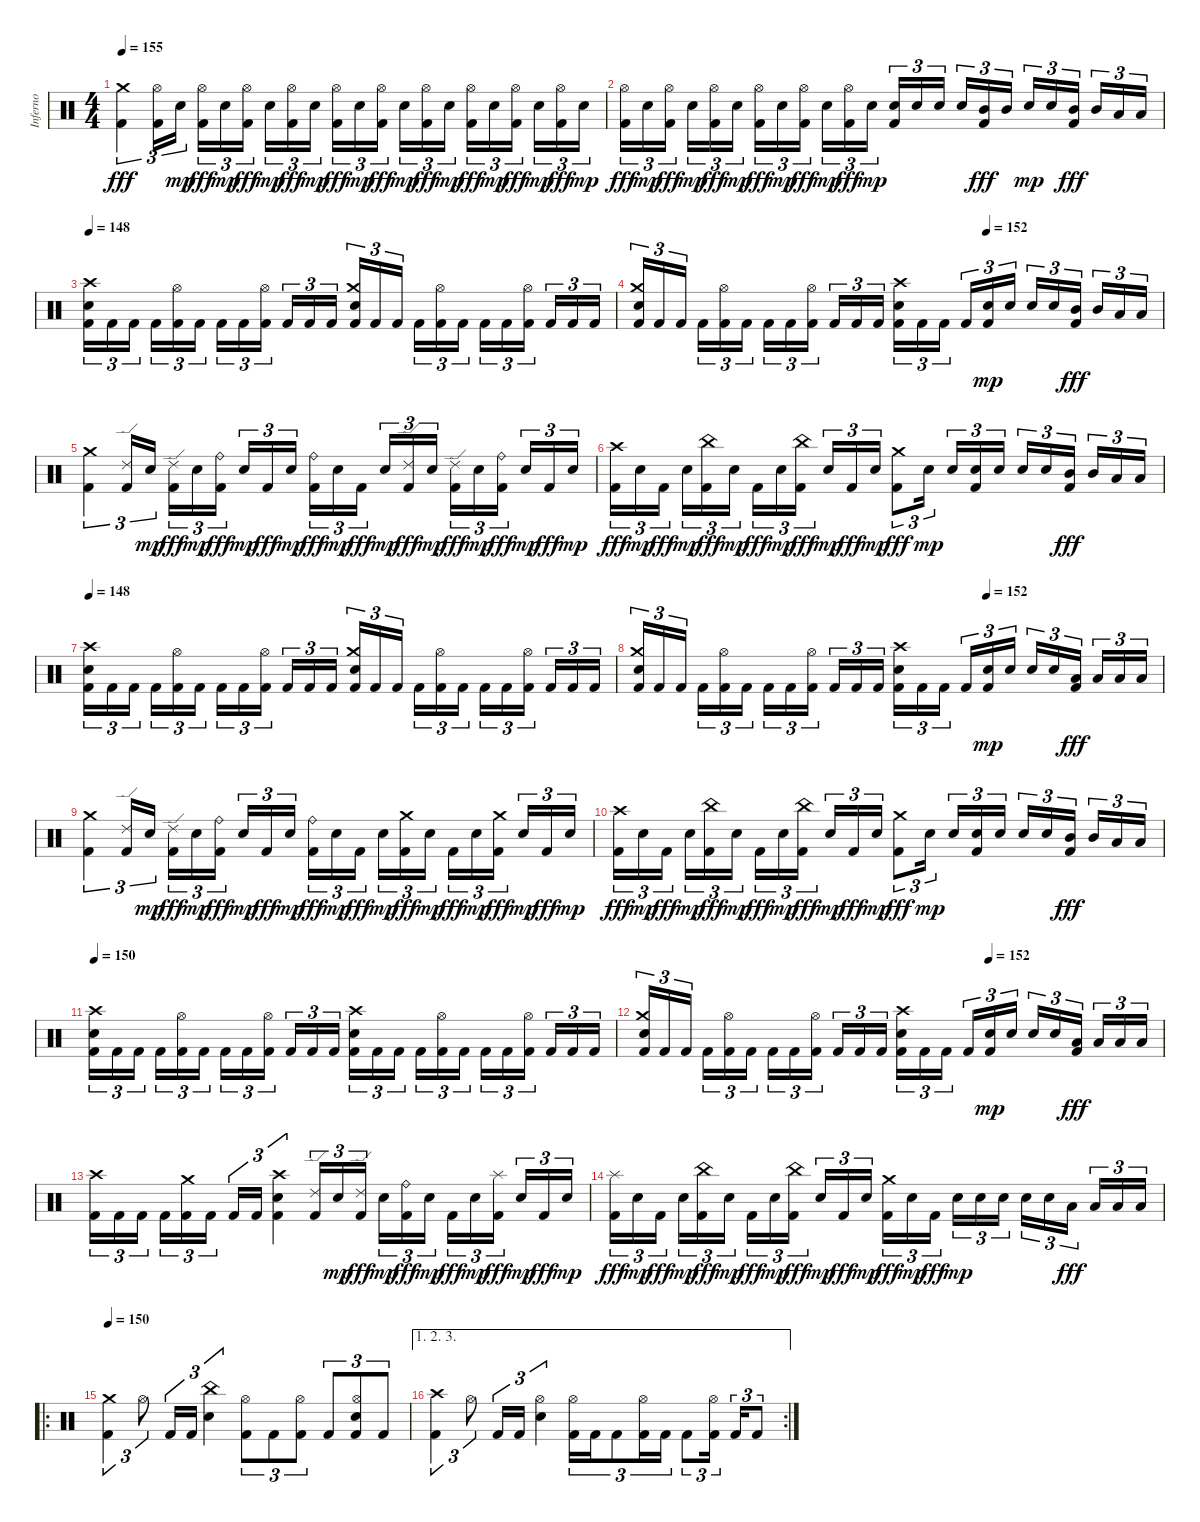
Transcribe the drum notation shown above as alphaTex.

\track ("Inferno" "Inferno") {instrument percussion}
\staff {score}
\articulation defaults
\ts (4 4)
\tempo 155
\clef neutral
\ks c
("Kick (hit) 2" "Crash medium (hit)").4{tu (3 2) dy fff} ("Kick (hit) 2" "Hi-Hat (open)").16{tu (3 2)} "Electric Snare (hit)".16{tu (3 2) dy mp} ("Kick (hit) 2" "Hi-Hat (open)").16{tu (3 2) dy fff} "Electric Snare (hit)".16{tu (3 2) dy mp} ("Kick (hit) 2" "Hi-Hat (open)").16{tu (3 2) dy fff beam splitsecondary} "Electric Snare (hit)".16{tu (3 2) dy mp} ("Kick (hit) 2" "Hi-Hat (open)").16{tu (3 2) dy fff} "Electric Snare (hit)".16{tu (3 2) dy mp} ("Kick (hit) 2" "Hi-Hat (open)").16{tu (3 2) dy fff} "Electric Snare (hit)".16{tu (3 2) dy mp} ("Kick (hit) 2" "Hi-Hat (open)").16{tu (3 2) dy fff beam splitsecondary} "Electric Snare (hit)".16{tu (3 2) dy mp} ("Kick (hit) 2" "Hi-Hat (open)").16{tu (3 2) dy fff} "Electric Snare (hit)".16{tu (3 2) dy mp} ("Kick (hit) 2" "Hi-Hat (open)").16{tu (3 2) dy fff} "Electric Snare (hit)".16{tu (3 2) dy mp} ("Kick (hit) 2" "Hi-Hat (open)").16{tu (3 2) dy fff beam splitsecondary} "Electric Snare (hit)".16{tu (3 2) dy mp} ("Kick (hit) 2" "Hi-Hat (open)").16{tu (3 2) dy fff} "Electric Snare (hit)".16{tu (3 2) dy mp} |
("Kick (hit) 2" "Hi-Hat (open)").16{tu (3 2) dy fff} "Electric Snare (hit)".16{tu (3 2) dy mp} ("Kick (hit) 2" "Hi-Hat (open)").16{tu (3 2) dy fff beam splitsecondary} "Electric Snare (hit)".16{tu (3 2) dy mp} ("Kick (hit) 2" "Hi-Hat (open)").16{tu (3 2) dy fff} "Electric Snare (hit)".16{tu (3 2) dy mp} ("Kick (hit) 2" "Hi-Hat (open)").16{tu (3 2) dy fff} "Electric Snare (hit)".16{tu (3 2) dy mp} ("Kick (hit) 2" "Hi-Hat (open)").16{tu (3 2) dy fff beam splitsecondary} "Electric Snare (hit)".16{tu (3 2) dy mp} ("Kick (hit) 2" "Hi-Hat (open)").16{tu (3 2) dy fff} "Electric Snare (hit)".16{tu (3 2) dy mp} ("Kick (hit) 2" "Electric Snare (hit)").16{tu (3 2)} "Electric Snare (hit)".16{tu (3 2)} "Electric Snare (hit)".16{tu (3 2) beam splitsecondary} "Electric Snare (hit)".16{tu (3 2)} ("Kick (hit) 2" "Mid Tom (hit)").16{tu (3 2) dy fff} "Mid Tom (hit)".16{tu (3 2)} "Electric Snare (hit)".16{tu (3 2) dy mp} "Electric Snare (hit)".16{tu (3 2)} ("Kick (hit) 2" "Mid Tom (hit)").16{tu (3 2) dy fff beam splitsecondary} "Mid Tom (hit)".16{tu (3 2)} "Low Tom (hit)".16{tu (3 2)} "Low Tom (hit)".16{tu (3 2)} |
\tempo 148
("Kick (hit) 2" "Electric Snare (hit)" "Crash high (hit)").16{tu (3 2)} "Kick (hit) 2".16{tu (3 2)} "Kick (hit) 2".16{tu (3 2) beam splitsecondary} "Kick (hit) 2".16{tu (3 2)} ("Kick (hit) 2" "Hi-Hat (open)").16{tu (3 2)} "Kick (hit) 2".16{tu (3 2)} "Kick (hit) 2".16{tu (3 2)} "Kick (hit) 2".16{tu (3 2)} ("Kick (hit) 2" "Hi-Hat (open)").16{tu (3 2) beam splitsecondary} "Kick (hit) 2".16{tu (3 2)} "Kick (hit) 2".16{tu (3 2)} "Kick (hit) 2".16{tu (3 2)} ("Kick (hit) 2" "Electric Snare (hit)" "Crash medium (hit)").16{tu (3 2)} "Kick (hit) 2".16{tu (3 2)} "Kick (hit) 2".16{tu (3 2) beam splitsecondary} "Kick (hit) 2".16{tu (3 2)} ("Kick (hit) 2" "Hi-Hat (open)").16{tu (3 2)} "Kick (hit) 2".16{tu (3 2)} "Kick (hit) 2".16{tu (3 2)} "Kick (hit) 2".16{tu (3 2)} ("Kick (hit) 2" "Hi-Hat (open)").16{tu (3 2) beam splitsecondary} "Kick (hit) 2".16{tu (3 2)} "Kick (hit) 2".16{tu (3 2)} "Kick (hit) 2".16{tu (3 2)} |
\tempo (152 0.6666666666666666)
("Kick (hit) 2" "Electric Snare (hit)" "Crash medium (hit)").16{tu (3 2)} "Kick (hit) 2".16{tu (3 2)} "Kick (hit) 2".16{tu (3 2) beam splitsecondary} "Kick (hit) 2".16{tu (3 2)} ("Kick (hit) 2" "Hi-Hat (open)").16{tu (3 2)} "Kick (hit) 2".16{tu (3 2)} "Kick (hit) 2".16{tu (3 2)} "Kick (hit) 2".16{tu (3 2)} ("Kick (hit) 2" "Hi-Hat (open)").16{tu (3 2) beam splitsecondary} "Kick (hit) 2".16{tu (3 2)} "Kick (hit) 2".16{tu (3 2)} "Kick (hit) 2".16{tu (3 2)} ("Kick (hit) 2" "Electric Snare (hit)" "Crash high (hit)").16{tu (3 2)} "Kick (hit) 2".16{tu (3 2)} "Kick (hit) 2".16{tu (3 2) beam splitsecondary} "Kick (hit) 2".16{tu (3 2)} ("Kick (hit) 2" "Electric Snare (hit)").16{tu (3 2) dy mp} "Electric Snare (hit)".16{tu (3 2)} "Electric Snare (hit)".16{tu (3 2)} "Electric Snare (hit)".16{tu (3 2)} ("Kick (hit) 2" "Mid Tom (hit)").16{tu (3 2) dy fff beam splitsecondary} "Mid Tom (hit)".16{tu (3 2)} "Low Tom (hit)".16{tu (3 2)} "Low Tom (hit)".16{tu (3 2)} |
("Kick (hit) 2" "Crash medium (hit)").4{tu (3 2)} ("Kick (hit) 2" "Ride (edge) 2").16{tu (3 2)} "Electric Snare (hit)".16{tu (3 2) dy mp} ("Kick (hit) 2" "Ride (edge) 2").16{tu (3 2) dy fff} "Electric Snare (hit)".16{tu (3 2) dy mp} ("Kick (hit) 2" "Ride (bell)").16{tu (3 2) dy fff beam splitsecondary} "Electric Snare (hit)".16{tu (3 2) dy mp} "Kick (hit) 2".16{tu (3 2) dy fff} "Electric Snare (hit)".16{tu (3 2) dy mp} ("Kick (hit) 2" "Ride (bell)").16{tu (3 2) dy fff} "Electric Snare (hit)".16{tu (3 2) dy mp} "Kick (hit) 2".16{tu (3 2) dy fff beam splitsecondary} "Electric Snare (hit)".16{tu (3 2) dy mp} ("Kick (hit) 2" "Ride (edge) 2").16{tu (3 2) dy fff} "Electric Snare (hit)".16{tu (3 2) dy mp} ("Kick (hit) 2" "Ride (edge) 2").16{tu (3 2) dy fff} "Electric Snare (hit)".16{tu (3 2) dy mp} ("Kick (hit) 2" "Ride (bell)").16{tu (3 2) dy fff beam splitsecondary} "Electric Snare (hit)".16{tu (3 2) dy mp} "Kick (hit) 2".16{tu (3 2) dy fff} "Electric Snare (hit)".16{tu (3 2) dy mp} |
("Kick (hit) 2" "Crash high (hit)").16{tu (3 2) dy fff} "Electric Snare (hit)".16{tu (3 2) dy mp} "Kick (hit) 2".16{tu (3 2) dy fff beam splitsecondary} "Electric Snare (hit)".16{tu (3 2) dy mp} ("Kick (hit) 2" "China (hit)").16{tu (3 2) dy fff} "Electric Snare (hit)".16{tu (3 2) dy mp} "Kick (hit) 2".16{tu (3 2) dy fff} "Electric Snare (hit)".16{tu (3 2) dy mp} ("Kick (hit) 2" "China (hit)").16{tu (3 2) dy fff beam splitsecondary} "Electric Snare (hit)".16{tu (3 2) dy mp} "Kick (hit) 2".16{tu (3 2) dy fff} "Electric Snare (hit)".16{tu (3 2) dy mp} ("Kick (hit) 2" "Crash medium (hit)").8{tu (3 2) dy fff} "Electric Snare (hit)".16{tu (3 2) dy mp beam splitsecondary} "Electric Snare (hit)".16{tu (3 2)} ("Kick (hit) 2" "Electric Snare (hit)").16{tu (3 2)} "Electric Snare (hit)".16{tu (3 2)} "Electric Snare (hit)".16{tu (3 2)} "Electric Snare (hit)".16{tu (3 2)} ("Kick (hit) 2" "Mid Tom (hit)").16{tu (3 2) dy fff beam splitsecondary} "Mid Tom (hit)".16{tu (3 2)} "Low Tom (hit)".16{tu (3 2)} "Low Tom (hit)".16{tu (3 2)} |
\tempo 148
("Kick (hit) 2" "Electric Snare (hit)" "Crash high (hit)").16{tu (3 2)} "Kick (hit) 2".16{tu (3 2)} "Kick (hit) 2".16{tu (3 2) beam splitsecondary} "Kick (hit) 2".16{tu (3 2)} ("Kick (hit) 2" "Hi-Hat (open)").16{tu (3 2)} "Kick (hit) 2".16{tu (3 2)} "Kick (hit) 2".16{tu (3 2)} "Kick (hit) 2".16{tu (3 2)} ("Kick (hit) 2" "Hi-Hat (open)").16{tu (3 2) beam splitsecondary} "Kick (hit) 2".16{tu (3 2)} "Kick (hit) 2".16{tu (3 2)} "Kick (hit) 2".16{tu (3 2)} ("Kick (hit) 2" "Electric Snare (hit)" "Crash medium (hit)").16{tu (3 2)} "Kick (hit) 2".16{tu (3 2)} "Kick (hit) 2".16{tu (3 2) beam splitsecondary} "Kick (hit) 2".16{tu (3 2)} ("Kick (hit) 2" "Hi-Hat (open)").16{tu (3 2)} "Kick (hit) 2".16{tu (3 2)} "Kick (hit) 2".16{tu (3 2)} "Kick (hit) 2".16{tu (3 2)} ("Kick (hit) 2" "Hi-Hat (open)").16{tu (3 2) beam splitsecondary} "Kick (hit) 2".16{tu (3 2)} "Kick (hit) 2".16{tu (3 2)} "Kick (hit) 2".16{tu (3 2)} |
\tempo (152 0.6666666666666666)
("Kick (hit) 2" "Electric Snare (hit)" "Crash medium (hit)").16{tu (3 2)} "Kick (hit) 2".16{tu (3 2)} "Kick (hit) 2".16{tu (3 2) beam splitsecondary} "Kick (hit) 2".16{tu (3 2)} ("Kick (hit) 2" "Hi-Hat (open)").16{tu (3 2)} "Kick (hit) 2".16{tu (3 2)} "Kick (hit) 2".16{tu (3 2)} "Kick (hit) 2".16{tu (3 2)} ("Kick (hit) 2" "Hi-Hat (open)").16{tu (3 2) beam splitsecondary} "Kick (hit) 2".16{tu (3 2)} "Kick (hit) 2".16{tu (3 2)} "Kick (hit) 2".16{tu (3 2)} ("Kick (hit) 2" "Electric Snare (hit)" "Crash high (hit)").16{tu (3 2)} "Kick (hit) 2".16{tu (3 2)} "Kick (hit) 2".16{tu (3 2) beam splitsecondary} "Kick (hit) 2".16{tu (3 2)} ("Kick (hit) 2" "Electric Snare (hit)").16{tu (3 2) dy mp} "Electric Snare (hit)".16{tu (3 2)} "Electric Snare (hit)".16{tu (3 2)} "Electric Snare (hit)".16{tu (3 2)} ("Kick (hit) 2" "Low Tom (hit)").16{tu (3 2) dy fff beam splitsecondary} "Low Tom (hit)".16{tu (3 2)} "Low Tom (hit)".16{tu (3 2)} "Low Tom (hit)".16{tu (3 2)} |
("Kick (hit) 2" "Crash medium (hit)").4{tu (3 2)} ("Kick (hit) 2" "Ride (edge) 2").16{tu (3 2)} "Electric Snare (hit)".16{tu (3 2) dy mp} ("Kick (hit) 2" "Ride (edge) 2").16{tu (3 2) dy fff} "Electric Snare (hit)".16{tu (3 2) dy mp} ("Kick (hit) 2" "Ride (bell)").16{tu (3 2) dy fff beam splitsecondary} "Electric Snare (hit)".16{tu (3 2) dy mp} "Kick (hit) 2".16{tu (3 2) dy fff} "Electric Snare (hit)".16{tu (3 2) dy mp} ("Kick (hit) 2" "Ride (bell)").16{tu (3 2) dy fff} "Electric Snare (hit)".16{tu (3 2) dy mp} "Kick (hit) 2".16{tu (3 2) dy fff beam splitsecondary} "Electric Snare (hit)".16{tu (3 2) dy mp} ("Kick (hit) 2" "Crash medium (hit)").16{tu (3 2) dy fff} "Electric Snare (hit)".16{tu (3 2) dy mp} "Kick (hit) 2".16{tu (3 2) dy fff} "Electric Snare (hit)".16{tu (3 2) dy mp} ("Kick (hit) 2" "Crash medium (hit)").16{tu (3 2) dy fff beam splitsecondary} "Electric Snare (hit)".16{tu (3 2) dy mp} "Kick (hit) 2".16{tu (3 2) dy fff} "Electric Snare (hit)".16{tu (3 2) dy mp} |
("Kick (hit) 2" "Crash high (hit)").16{tu (3 2) dy fff} "Electric Snare (hit)".16{tu (3 2) dy mp} "Kick (hit) 2".16{tu (3 2) dy fff beam splitsecondary} "Electric Snare (hit)".16{tu (3 2) dy mp} ("Kick (hit) 2" "China (hit)").16{tu (3 2) dy fff} "Electric Snare (hit)".16{tu (3 2) dy mp} "Kick (hit) 2".16{tu (3 2) dy fff} "Electric Snare (hit)".16{tu (3 2) dy mp} ("Kick (hit) 2" "China (hit)").16{tu (3 2) dy fff beam splitsecondary} "Electric Snare (hit)".16{tu (3 2) dy mp} "Kick (hit) 2".16{tu (3 2) dy fff} "Electric Snare (hit)".16{tu (3 2) dy mp} ("Kick (hit) 2" "Crash medium (hit)").8{tu (3 2) dy fff} "Electric Snare (hit)".16{tu (3 2) dy mp beam splitsecondary} "Electric Snare (hit)".16{tu (3 2)} ("Kick (hit) 2" "Electric Snare (hit)").16{tu (3 2)} "Electric Snare (hit)".16{tu (3 2)} "Electric Snare (hit)".16{tu (3 2)} "Electric Snare (hit)".16{tu (3 2)} ("Kick (hit) 2" "Mid Tom (hit)").16{tu (3 2) dy fff beam splitsecondary} "Mid Tom (hit)".16{tu (3 2)} "Low Tom (hit)".16{tu (3 2)} "Low Tom (hit)".16{tu (3 2)} |
\tempo 150
("Kick (hit) 2" "Electric Snare (hit)" "Crash high (hit)").16{tu (3 2)} "Kick (hit) 2".16{tu (3 2)} "Kick (hit) 2".16{tu (3 2) beam splitsecondary} "Kick (hit) 2".16{tu (3 2)} ("Kick (hit) 2" "Hi-Hat (open)").16{tu (3 2)} "Kick (hit) 2".16{tu (3 2)} "Kick (hit) 2".16{tu (3 2)} "Kick (hit) 2".16{tu (3 2)} ("Kick (hit) 2" "Hi-Hat (open)").16{tu (3 2) beam splitsecondary} "Kick (hit) 2".16{tu (3 2)} "Kick (hit) 2".16{tu (3 2)} "Kick (hit) 2".16{tu (3 2)} ("Kick (hit) 2" "Electric Snare (hit)" "Crash high (hit)").16{tu (3 2)} "Kick (hit) 2".16{tu (3 2)} "Kick (hit) 2".16{tu (3 2) beam splitsecondary} "Kick (hit) 2".16{tu (3 2)} ("Kick (hit) 2" "Hi-Hat (open)").16{tu (3 2)} "Kick (hit) 2".16{tu (3 2)} "Kick (hit) 2".16{tu (3 2)} "Kick (hit) 2".16{tu (3 2)} ("Kick (hit) 2" "Hi-Hat (open)").16{tu (3 2) beam splitsecondary} "Kick (hit) 2".16{tu (3 2)} "Kick (hit) 2".16{tu (3 2)} "Kick (hit) 2".16{tu (3 2)} |
\tempo (152 0.6666666666666666)
("Kick (hit) 2" "Electric Snare (hit)" "Crash medium (hit)").16{tu (3 2)} "Kick (hit) 2".16{tu (3 2)} "Kick (hit) 2".16{tu (3 2) beam splitsecondary} "Kick (hit) 2".16{tu (3 2)} ("Kick (hit) 2" "Hi-Hat (open)").16{tu (3 2)} "Kick (hit) 2".16{tu (3 2)} "Kick (hit) 2".16{tu (3 2)} "Kick (hit) 2".16{tu (3 2)} ("Kick (hit) 2" "Hi-Hat (open)").16{tu (3 2) beam splitsecondary} "Kick (hit) 2".16{tu (3 2)} "Kick (hit) 2".16{tu (3 2)} "Kick (hit) 2".16{tu (3 2)} ("Kick (hit) 2" "Electric Snare (hit)" "Crash high (hit)").16{tu (3 2)} "Kick (hit) 2".16{tu (3 2)} "Kick (hit) 2".16{tu (3 2) beam splitsecondary} "Kick (hit) 2".16{tu (3 2)} ("Kick (hit) 2" "Electric Snare (hit)").16{tu (3 2) dy mp} "Electric Snare (hit)".16{tu (3 2)} "Electric Snare (hit)".16{tu (3 2)} "Electric Snare (hit)".16{tu (3 2)} ("Kick (hit) 2" "Low Tom (hit)").16{tu (3 2) dy fff beam splitsecondary} "Low Tom (hit)".16{tu (3 2)} "Low Tom (hit)".16{tu (3 2)} "Low Tom (hit)".16{tu (3 2)} |
("Kick (hit) 2" "Crash high (hit)").16{tu (3 2)} "Kick (hit) 2".16{tu (3 2)} "Kick (hit) 2".16{tu (3 2) beam splitsecondary} "Kick (hit) 2".16{tu (3 2)} ("Kick (hit) 2" "Crash medium (hit)").16{tu (3 2)} "Kick (hit) 2".16{tu (3 2)} "Kick (hit) 2".16{tu (3 2)} "Kick (hit) 2".16{tu (3 2)} ("Kick (hit) 2" "Electric Snare (hit)" "Crash high (hit)").4{tu (3 2)} ("Kick (hit) 2" "Ride (edge) 2").16{tu (3 2)} "Electric Snare (hit)".16{tu (3 2) dy mp} ("Kick (hit) 2" "Ride (edge) 2").16{tu (3 2) dy fff beam splitsecondary} "Electric Snare (hit)".16{tu (3 2) dy mp} ("Kick (hit) 2" "Ride (bell)").16{tu (3 2) dy fff} "Electric Snare (hit)".16{tu (3 2) dy mp} "Kick (hit) 2".16{tu (3 2) dy fff} "Electric Snare (hit)".16{tu (3 2) dy mp} ("Kick (hit) 2" "Splash (hit)").16{tu (3 2) dy fff beam splitsecondary} "Electric Snare (hit)".16{tu (3 2) dy mp} "Kick (hit) 2".16{tu (3 2) dy fff} "Electric Snare (hit)".16{tu (3 2) dy mp} |
("Kick (hit) 2" "Splash (hit)").16{tu (3 2) dy fff} "Electric Snare (hit)".16{tu (3 2) dy mp} "Kick (hit) 2".16{tu (3 2) dy fff beam splitsecondary} "Electric Snare (hit)".16{tu (3 2) dy mp} ("Kick (hit) 2" "China (hit)").16{tu (3 2) dy fff} "Electric Snare (hit)".16{tu (3 2) dy mp} "Kick (hit) 2".16{tu (3 2) dy fff} "Electric Snare (hit)".16{tu (3 2) dy mp} ("Kick (hit) 2" "China (hit)").16{tu (3 2) dy fff beam splitsecondary} "Electric Snare (hit)".16{tu (3 2) dy mp} "Kick (hit) 2".16{tu (3 2) dy fff} "Electric Snare (hit)".16{tu (3 2) dy mp} ("Kick (hit) 2" "Crash medium (hit)").16{tu (3 2) dy fff} "Electric Snare (hit)".16{tu (3 2) dy mp} "Kick (hit) 2".16{tu (3 2) dy fff beam splitsecondary} "Electric Snare (hit)".16{tu (3 2) dy mp} "Electric Snare (hit)".16{tu (3 2)} "Electric Snare (hit)".16{tu (3 2)} "Electric Snare (hit)".16{tu (3 2)} "Electric Snare (hit)".16{tu (3 2)} "Low Tom (hit)".16{tu (3 2) dy fff beam splitsecondary} "Low Tom (hit)".16{tu (3 2)} "Low Tom (hit)".16{tu (3 2)} "Low Tom (hit)".16{tu (3 2)} |
\ro
\tempo 150
("Kick (hit) 2" "Crash medium (hit)").4{tu (3 2)} "Hi-Hat (open)".8{tu (3 2)} "Kick (hit) 2".16{tu (3 2)} "Kick (hit) 2".16{tu (3 2)} ("Electric Snare (hit)" "China (hit)").4{tu (3 2)} ("Kick (hit) 2" "Hi-Hat (open)").8{tu (3 2)} "Kick (hit) 2".8{tu (3 2)} ("Kick (hit) 2" "Hi-Hat (open)").8{tu (3 2)} "Kick (hit) 2".8{tu (3 2)} ("Kick (hit) 2" "Electric Snare (hit)" "Hi-Hat (open)").8{tu (3 2)} "Kick (hit) 2".8{tu (3 2)} |
\ae (1 2 3)
\rc 2
("Kick (hit) 2" "Crash high (hit)").4{tu (3 2)} "Hi-Hat (open)".8{tu (3 2)} "Kick (hit) 2".16{tu (3 2)} "Kick (hit) 2".16{tu (3 2)} ("Electric Snare (hit)" "Hi-Hat (open)").4{tu (3 2)} ("Kick (hit) 2" "Hi-Hat (open)").16{tu (3 2)} "Kick (hit) 2".16{tu (3 2)} "Kick (hit) 2".8{tu (3 2)} ("Kick (hit) 2" "Hi-Hat (open)").16{tu (3 2)} "Kick (hit) 2".16{tu (3 2)} "Kick (hit) 2".8{tu (3 2)} ("Kick (hit) 2" "Hi-Hat (open)").16{tu (3 2) beam splitsecondary} "Kick (hit) 2".16{tu (3 2)} "Kick (hit) 2".8{tu (3 2)}
